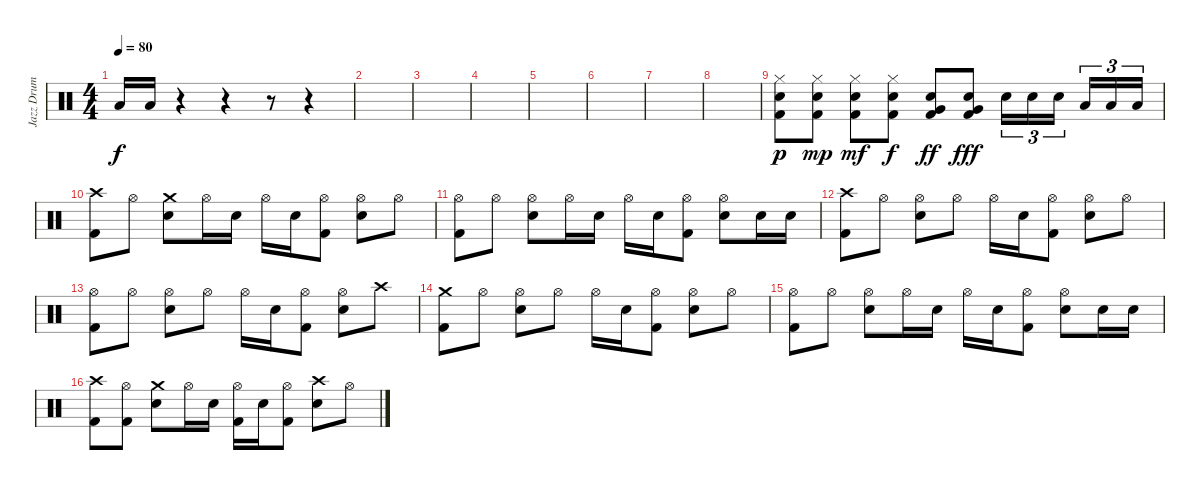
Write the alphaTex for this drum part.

\track ("Jazz Drum" "Jazz Drum") {instrument percussion}
\staff {score}
\articulation defaults
\ts (4 4)
\tempo 80
\clef neutral
\ks c "Low Tom (hit)".16{dy f} "Low Tom (hit)".16
r.4 r.4 r.8 r.4 |
|
|
|
|
|
|
|
("Hi-Hat (closed)" "Electric Snare (hit)" "Kick (hit) 2").8{dy p} ("Hi-Hat (closed)" "Electric Snare (hit)" "Kick (hit) 2").8{dy mp} ("Hi-Hat (closed)" "Electric Snare (hit)" "Kick (hit) 2").8{dy mf} ("Hi-Hat (closed)" "Electric Snare (hit)" "Kick (hit) 2").8{dy f} ("Very Low Tom (hit)" "Electric Snare (hit)" "Kick (hit) 2").8{dy ff} ("Very Low Tom (hit)" "Electric Snare (hit)" "Kick (hit) 2").8{dy fff} "Electric Snare (hit)".16{tu (3 2)} "Electric Snare (hit)".16{tu (3 2)} "Electric Snare (hit)".16{tu (3 2) beam splitsecondary} "Low Tom (hit)".16{tu (3 2)} "Low Tom (hit)".16{tu (3 2)} "Low Tom (hit)".16{tu (3 2)} |
("Crash high (hit)" "Kick (hit) 2").8 "Hi-Hat (open)".8 ("Crash medium (hit)" "Electric Snare (hit)").8 "Hi-Hat (open)".16 "Electric Snare (hit)".16 "Hi-Hat (open)".16 "Electric Snare (hit)".16 ("Hi-Hat (open)" "Kick (hit) 2").8 ("Hi-Hat (open)" "Electric Snare (hit)").8 "Hi-Hat (open)".8 |
("Hi-Hat (open)" "Kick (hit) 2").8 "Hi-Hat (open)".8 ("Hi-Hat (open)" "Electric Snare (hit)").8 "Hi-Hat (open)".16 "Electric Snare (hit)".16 "Hi-Hat (open)".16 "Electric Snare (hit)".16 ("Hi-Hat (open)" "Kick (hit) 2").8 ("Hi-Hat (open)" "Electric Snare (hit)").8 "Electric Snare (hit)".16 "Electric Snare (hit)".16 |
("Crash high (hit)" "Kick (hit) 2").8 "Hi-Hat (open)".8 ("Hi-Hat (open)" "Electric Snare (hit)").8 "Hi-Hat (open)".8 "Hi-Hat (open)".16 "Electric Snare (hit)".16 ("Hi-Hat (open)" "Kick (hit) 2").8 ("Hi-Hat (open)" "Electric Snare (hit)").8 "Hi-Hat (open)".8 |
("Hi-Hat (open)" "Kick (hit) 2").8 "Hi-Hat (open)".8 ("Hi-Hat (open)" "Electric Snare (hit)").8 "Hi-Hat (open)".8 "Hi-Hat (open)".16 "Electric Snare (hit)".16 ("Hi-Hat (open)" "Kick (hit) 2").8 ("Hi-Hat (open)" "Electric Snare (hit)").8 "Crash high (hit)".8 |
("Crash medium (hit)" "Kick (hit) 2").8 "Hi-Hat (open)".8 ("Hi-Hat (open)" "Electric Snare (hit)").8 "Hi-Hat (open)".8 "Hi-Hat (open)".16 "Electric Snare (hit)".16 ("Hi-Hat (open)" "Kick (hit) 2").8 ("Hi-Hat (open)" "Electric Snare (hit)").8 "Hi-Hat (open)".8 |
("Hi-Hat (open)" "Kick (hit) 2").8 "Hi-Hat (open)".8 ("Hi-Hat (open)" "Electric Snare (hit)").8 "Hi-Hat (open)".16 "Electric Snare (hit)".16 "Hi-Hat (open)".16 "Electric Snare (hit)".16 ("Hi-Hat (open)" "Kick (hit) 2").8 ("Hi-Hat (open)" "Electric Snare (hit)").8 "Electric Snare (hit)".16 "Electric Snare (hit)".16 |
("Crash high (hit)" "Kick (hit) 2").8 ("Hi-Hat (open)" "Kick (hit) 2").8 ("Crash medium (hit)" "Electric Snare (hit)").8 "Hi-Hat (open)".16 "Electric Snare (hit)".16 ("Hi-Hat (open)" "Kick (hit) 2").16 "Electric Snare (hit)".16 ("Hi-Hat (open)" "Kick (hit) 2").8 ("Crash high (hit)" "Electric Snare (hit)").8 "Hi-Hat (open)".8
